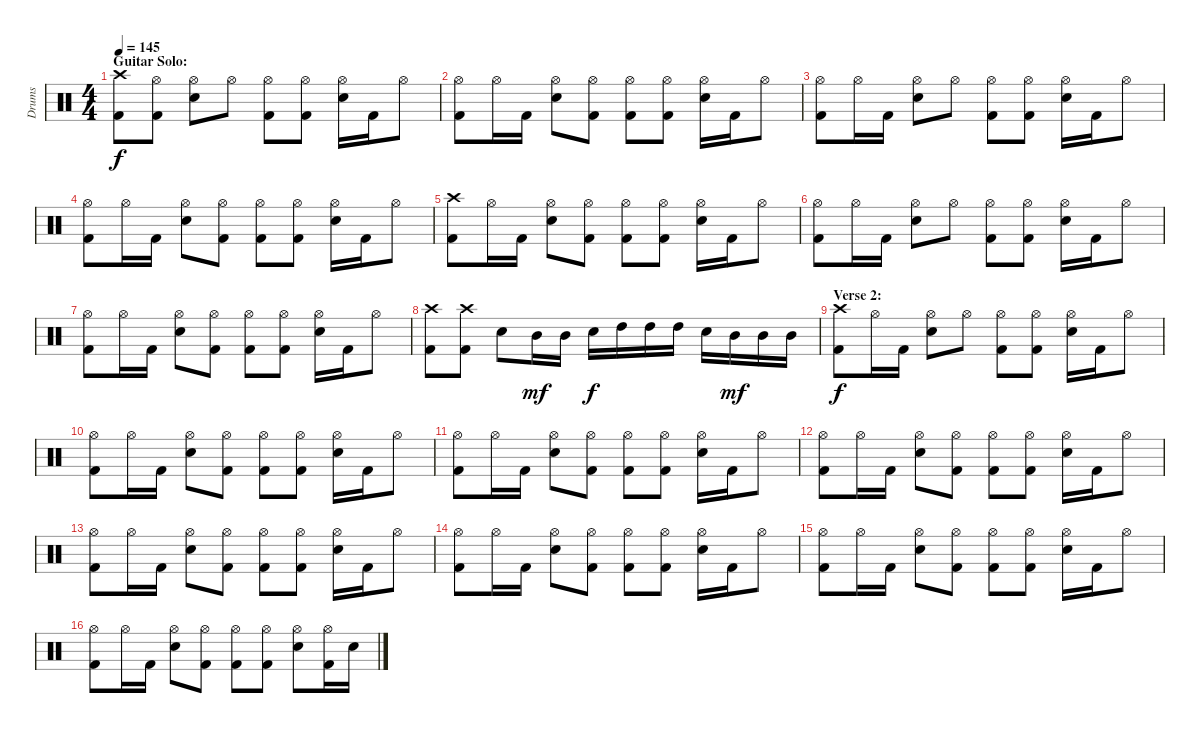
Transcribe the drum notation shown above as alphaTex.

\track ("Drums" "Drums") {instrument percussion}
\staff {score}
\articulation defaults
\ts (4 4)
\section ("" "Guitar Solo:")
\tempo 145
\clef neutral
\ks c
("Crash high (hit)" "Kick (hit) 2").8{dy f} ("Hi-Hat (open)" "Kick (hit) 2").8 ("Hi-Hat (open)" "Snare (hit) 2").8 "Hi-Hat (open)".8 ("Hi-Hat (open)" "Kick (hit) 2").8 ("Hi-Hat (open)" "Kick (hit) 2").8 ("Hi-Hat (open)" "Snare (hit) 2").16 "Kick (hit) 2".16 "Hi-Hat (open)".8 |
("Hi-Hat (open)" "Kick (hit) 2").8 "Hi-Hat (open)".16 "Kick (hit) 2".16 ("Hi-Hat (open)" "Snare (hit) 2").8 ("Hi-Hat (open)" "Kick (hit) 2").8 ("Hi-Hat (open)" "Kick (hit) 2").8 ("Hi-Hat (open)" "Kick (hit) 2").8 ("Hi-Hat (open)" "Snare (hit) 2").16 "Kick (hit) 2".16 "Hi-Hat (open)".8 |
("Hi-Hat (open)" "Kick (hit) 2").8 "Hi-Hat (open)".16 "Kick (hit) 2".16 ("Hi-Hat (open)" "Snare (hit) 2").8 "Hi-Hat (open)".8 ("Hi-Hat (open)" "Kick (hit) 2").8 ("Hi-Hat (open)" "Kick (hit) 2").8 ("Hi-Hat (open)" "Snare (hit) 2").16 "Kick (hit) 2".16 "Hi-Hat (open)".8 |
("Hi-Hat (open)" "Kick (hit) 2").8 "Hi-Hat (open)".16 "Kick (hit) 2".16 ("Hi-Hat (open)" "Snare (hit) 2").8 ("Hi-Hat (open)" "Kick (hit) 2").8 ("Hi-Hat (open)" "Kick (hit) 2").8 ("Hi-Hat (open)" "Kick (hit) 2").8 ("Hi-Hat (open)" "Snare (hit) 2").16 "Kick (hit) 2".16 "Hi-Hat (open)".8 |
("Crash high (hit)" "Kick (hit) 2").8 "Hi-Hat (open)".16 "Kick (hit) 2".16 ("Hi-Hat (open)" "Snare (hit) 2").8 ("Hi-Hat (open)" "Kick (hit) 2").8 ("Hi-Hat (open)" "Kick (hit) 2").8 ("Hi-Hat (open)" "Kick (hit) 2").8 ("Hi-Hat (open)" "Snare (hit) 2").16 "Kick (hit) 2".16 "Hi-Hat (open)".8 |
("Hi-Hat (open)" "Kick (hit) 2").8 "Hi-Hat (open)".16 "Kick (hit) 2".16 ("Hi-Hat (open)" "Snare (hit) 2").8 "Hi-Hat (open)".8 ("Hi-Hat (open)" "Kick (hit) 2").8 ("Hi-Hat (open)" "Kick (hit) 2").8 ("Hi-Hat (open)" "Snare (hit) 2").16 "Kick (hit) 2".16 "Hi-Hat (open)".8 |
("Hi-Hat (open)" "Kick (hit) 2").8 "Hi-Hat (open)".16 "Kick (hit) 2".16 ("Hi-Hat (open)" "Snare (hit) 2").8 ("Hi-Hat (open)" "Kick (hit) 2").8 ("Hi-Hat (open)" "Kick (hit) 2").8 ("Hi-Hat (open)" "Kick (hit) 2").8 ("Hi-Hat (open)" "Snare (hit) 2").16 "Kick (hit) 2".16 "Hi-Hat (open)".8 |
("Crash high (hit)" "Kick (hit) 2").8 ("Crash high (hit)" "Kick (hit) 2").8 "Snare (hit) 2".8 "Mid Tom (hit)".16{dy mf} "Mid Tom (hit)".16 "Snare (hit) 2".16{dy f} "High Tom (hit)".16 "High Tom (hit)".16 "High Tom (hit)".16 "Snare (hit) 2".16 "Mid Tom (hit)".16{dy mf} "Mid Tom (hit)".16 "Mid Tom (hit)".16 |
\section ("" "Verse 2:")
("Crash high (hit)" "Kick (hit) 2").8{dy f} "Hi-Hat (open)".16 "Kick (hit) 2".16 ("Hi-Hat (open)" "Snare (hit) 2").8 "Hi-Hat (open)".8 ("Hi-Hat (open)" "Kick (hit) 2").8 ("Hi-Hat (open)" "Kick (hit) 2").8 ("Hi-Hat (open)" "Snare (hit) 2").16 "Kick (hit) 2".16 "Hi-Hat (open)".8 |
("Hi-Hat (open)" "Kick (hit) 2").8 "Hi-Hat (open)".16 "Kick (hit) 2".16 ("Hi-Hat (open)" "Snare (hit) 2").8 ("Hi-Hat (open)" "Kick (hit) 2").8 ("Hi-Hat (open)" "Kick (hit) 2").8 ("Hi-Hat (open)" "Kick (hit) 2").8 ("Hi-Hat (open)" "Snare (hit) 2").16 "Kick (hit) 2".16 "Hi-Hat (open)".8 |
("Hi-Hat (open)" "Kick (hit) 2").8 "Hi-Hat (open)".16 "Kick (hit) 2".16 ("Hi-Hat (open)" "Snare (hit) 2").8 ("Hi-Hat (open)" "Kick (hit) 2").8 ("Hi-Hat (open)" "Kick (hit) 2").8 ("Hi-Hat (open)" "Kick (hit) 2").8 ("Hi-Hat (open)" "Snare (hit) 2").16 "Kick (hit) 2".16 "Hi-Hat (open)".8 |
("Hi-Hat (open)" "Kick (hit) 2").8 "Hi-Hat (open)".16 "Kick (hit) 2".16 ("Hi-Hat (open)" "Snare (hit) 2").8 ("Hi-Hat (open)" "Kick (hit) 2").8 ("Hi-Hat (open)" "Kick (hit) 2").8 ("Hi-Hat (open)" "Kick (hit) 2").8 ("Hi-Hat (open)" "Snare (hit) 2").16 "Kick (hit) 2".16 "Hi-Hat (open)".8 |
("Hi-Hat (open)" "Kick (hit) 2").8 "Hi-Hat (open)".16 "Kick (hit) 2".16 ("Hi-Hat (open)" "Snare (hit) 2").8 ("Hi-Hat (open)" "Kick (hit) 2").8 ("Hi-Hat (open)" "Kick (hit) 2").8 ("Hi-Hat (open)" "Kick (hit) 2").8 ("Hi-Hat (open)" "Snare (hit) 2").16 "Kick (hit) 2".16 "Hi-Hat (open)".8 |
("Hi-Hat (open)" "Kick (hit) 2").8 "Hi-Hat (open)".16 "Kick (hit) 2".16 ("Hi-Hat (open)" "Snare (hit) 2").8 ("Hi-Hat (open)" "Kick (hit) 2").8 ("Hi-Hat (open)" "Kick (hit) 2").8 ("Hi-Hat (open)" "Kick (hit) 2").8 ("Hi-Hat (open)" "Snare (hit) 2").16 "Kick (hit) 2".16 "Hi-Hat (open)".8 |
("Hi-Hat (open)" "Kick (hit) 2").8 "Hi-Hat (open)".16 "Kick (hit) 2".16 ("Hi-Hat (open)" "Snare (hit) 2").8 ("Hi-Hat (open)" "Kick (hit) 2").8 ("Hi-Hat (open)" "Kick (hit) 2").8 ("Hi-Hat (open)" "Kick (hit) 2").8 ("Hi-Hat (open)" "Snare (hit) 2").16 "Kick (hit) 2".16 "Hi-Hat (open)".8 |
("Hi-Hat (open)" "Kick (hit) 2").8 "Hi-Hat (open)".16 "Kick (hit) 2".16 ("Hi-Hat (open)" "Snare (hit) 2").8 ("Hi-Hat (open)" "Kick (hit) 2").8 ("Hi-Hat (open)" "Kick (hit) 2").8 ("Hi-Hat (open)" "Kick (hit) 2").8 ("Hi-Hat (open)" "Snare (hit) 2").8 ("Hi-Hat (open)" "Kick (hit) 2").16 "Snare (hit) 2".16
